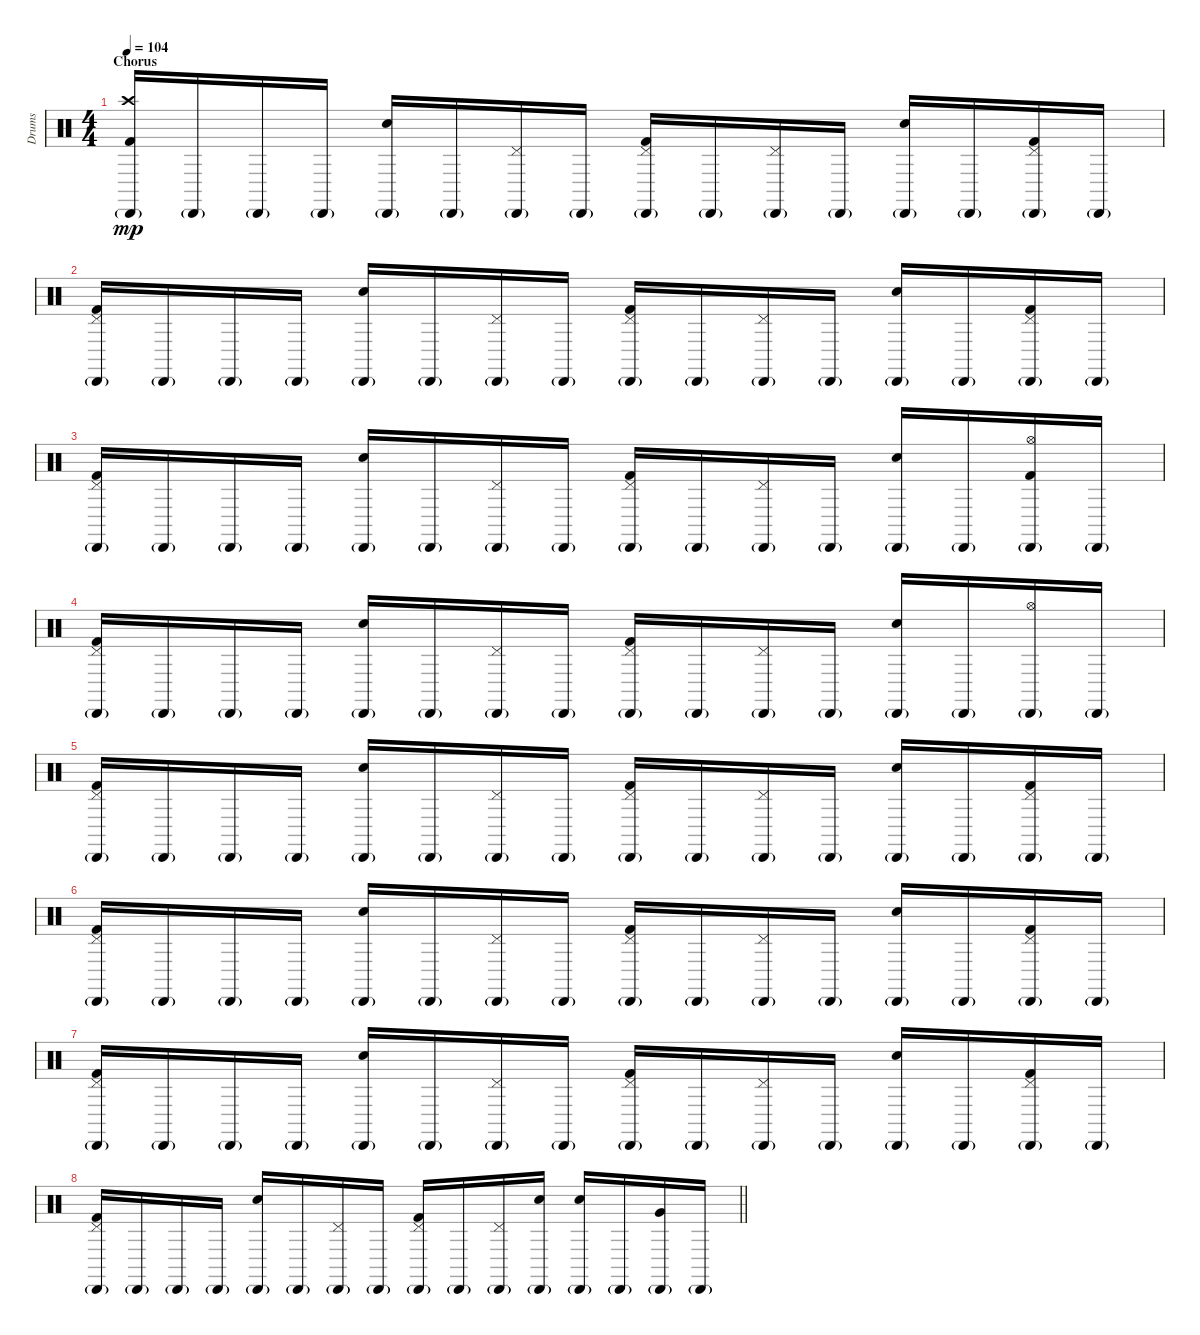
\track ("Drums" "Drums") {instrument percussion}
\staff {score}
\articulation defaults
\ts (4 4)
\section ("" "Chorus")
\tempo 104
\clef neutral
\ks c
("Crash high (hit)" "Cabasa (hit)"{g} "Kick (hit) 2").16{dy mp} "Cabasa (hit)"{g}.16 "Cabasa (hit)"{g}.16 "Cabasa (hit)"{g}.16 ("Snare (hit) 2" "Cabasa (hit)"{g}).16 "Cabasa (hit)"{g}.16 ("Pedal Hi-Hat (hit)" "Cabasa (hit)"{g}).16 "Cabasa (hit)"{g}.16 ("Pedal Hi-Hat (hit)" "Cabasa (hit)"{g} "Kick (hit) 2").16 "Cabasa (hit)"{g}.16 ("Pedal Hi-Hat (hit)" "Cabasa (hit)"{g}).16 "Cabasa (hit)"{g}.16 ("Snare (hit) 2" "Cabasa (hit)"{g}).16 "Cabasa (hit)"{g}.16 ("Pedal Hi-Hat (hit)" "Cabasa (hit)"{g} "Kick (hit) 2").16 "Cabasa (hit)"{g}.16 |
("Pedal Hi-Hat (hit)" "Cabasa (hit)"{g} "Kick (hit) 2").16 "Cabasa (hit)"{g}.16 "Cabasa (hit)"{g}.16 "Cabasa (hit)"{g}.16 ("Snare (hit) 2" "Cabasa (hit)"{g}).16 "Cabasa (hit)"{g}.16 ("Pedal Hi-Hat (hit)" "Cabasa (hit)"{g}).16 "Cabasa (hit)"{g}.16 ("Pedal Hi-Hat (hit)" "Cabasa (hit)"{g} "Kick (hit) 2").16 "Cabasa (hit)"{g}.16 ("Pedal Hi-Hat (hit)" "Cabasa (hit)"{g}).16 "Cabasa (hit)"{g}.16 ("Snare (hit) 2" "Cabasa (hit)"{g}).16 "Cabasa (hit)"{g}.16 ("Pedal Hi-Hat (hit)" "Cabasa (hit)"{g} "Kick (hit) 2").16 "Cabasa (hit)"{g}.16 |
("Pedal Hi-Hat (hit)" "Cabasa (hit)"{g} "Kick (hit) 2").16 "Cabasa (hit)"{g}.16 "Cabasa (hit)"{g}.16 "Cabasa (hit)"{g}.16 ("Snare (hit) 2" "Cabasa (hit)"{g}).16 "Cabasa (hit)"{g}.16 ("Pedal Hi-Hat (hit)" "Cabasa (hit)"{g}).16 "Cabasa (hit)"{g}.16 ("Pedal Hi-Hat (hit)" "Cabasa (hit)"{g} "Kick (hit) 2").16 "Cabasa (hit)"{g}.16 ("Pedal Hi-Hat (hit)" "Cabasa (hit)"{g}).16 "Cabasa (hit)"{g}.16 ("Snare (hit) 2" "Cabasa (hit)"{g}).16 "Cabasa (hit)"{g}.16 ("Hi-Hat (open)" "Cabasa (hit)"{g} "Kick (hit) 2").16 "Cabasa (hit)"{g}.16 |
("Pedal Hi-Hat (hit)" "Cabasa (hit)"{g} "Kick (hit) 2").16 "Cabasa (hit)"{g}.16 "Cabasa (hit)"{g}.16 "Cabasa (hit)"{g}.16 ("Snare (hit) 2" "Cabasa (hit)"{g}).16 "Cabasa (hit)"{g}.16 ("Pedal Hi-Hat (hit)" "Cabasa (hit)"{g}).16 "Cabasa (hit)"{g}.16 ("Pedal Hi-Hat (hit)" "Cabasa (hit)"{g} "Kick (hit) 2").16 "Cabasa (hit)"{g}.16 ("Pedal Hi-Hat (hit)" "Cabasa (hit)"{g}).16 "Cabasa (hit)"{g}.16 ("Snare (hit) 2" "Cabasa (hit)"{g}).16 "Cabasa (hit)"{g}.16 ("Hi-Hat (open)" "Cabasa (hit)"{g}).16 "Cabasa (hit)"{g}.16 |
("Pedal Hi-Hat (hit)" "Cabasa (hit)"{g} "Kick (hit) 2").16 "Cabasa (hit)"{g}.16 "Cabasa (hit)"{g}.16 "Cabasa (hit)"{g}.16 ("Snare (hit) 2" "Cabasa (hit)"{g}).16 "Cabasa (hit)"{g}.16 ("Pedal Hi-Hat (hit)" "Cabasa (hit)"{g}).16 "Cabasa (hit)"{g}.16 ("Pedal Hi-Hat (hit)" "Cabasa (hit)"{g} "Kick (hit) 2").16 "Cabasa (hit)"{g}.16 ("Pedal Hi-Hat (hit)" "Cabasa (hit)"{g}).16 "Cabasa (hit)"{g}.16 ("Snare (hit) 2" "Cabasa (hit)"{g}).16 "Cabasa (hit)"{g}.16 ("Pedal Hi-Hat (hit)" "Cabasa (hit)"{g} "Kick (hit) 2").16 "Cabasa (hit)"{g}.16 |
("Pedal Hi-Hat (hit)" "Cabasa (hit)"{g} "Kick (hit) 2").16 "Cabasa (hit)"{g}.16 "Cabasa (hit)"{g}.16 "Cabasa (hit)"{g}.16 ("Snare (hit) 2" "Cabasa (hit)"{g}).16 "Cabasa (hit)"{g}.16 ("Pedal Hi-Hat (hit)" "Cabasa (hit)"{g}).16 "Cabasa (hit)"{g}.16 ("Pedal Hi-Hat (hit)" "Cabasa (hit)"{g} "Kick (hit) 2").16 "Cabasa (hit)"{g}.16 ("Pedal Hi-Hat (hit)" "Cabasa (hit)"{g}).16 "Cabasa (hit)"{g}.16 ("Snare (hit) 2" "Cabasa (hit)"{g}).16 "Cabasa (hit)"{g}.16 ("Pedal Hi-Hat (hit)" "Cabasa (hit)"{g} "Kick (hit) 2").16 "Cabasa (hit)"{g}.16 |
("Pedal Hi-Hat (hit)" "Cabasa (hit)"{g} "Kick (hit) 2").16 "Cabasa (hit)"{g}.16 "Cabasa (hit)"{g}.16 "Cabasa (hit)"{g}.16 ("Snare (hit) 2" "Cabasa (hit)"{g}).16 "Cabasa (hit)"{g}.16 ("Pedal Hi-Hat (hit)" "Cabasa (hit)"{g}).16 "Cabasa (hit)"{g}.16 ("Pedal Hi-Hat (hit)" "Cabasa (hit)"{g} "Kick (hit) 2").16 "Cabasa (hit)"{g}.16 ("Pedal Hi-Hat (hit)" "Cabasa (hit)"{g}).16 "Cabasa (hit)"{g}.16 ("Snare (hit) 2" "Cabasa (hit)"{g}).16 "Cabasa (hit)"{g}.16 ("Pedal Hi-Hat (hit)" "Cabasa (hit)"{g} "Kick (hit) 2").16 "Cabasa (hit)"{g}.16 |
\barLineRight lightlight
("Pedal Hi-Hat (hit)" "Cabasa (hit)"{g} "Kick (hit) 2").16 "Cabasa (hit)"{g}.16 "Cabasa (hit)"{g}.16 "Cabasa (hit)"{g}.16 ("Snare (hit) 2" "Cabasa (hit)"{g}).16 "Cabasa (hit)"{g}.16 ("Pedal Hi-Hat (hit)" "Cabasa (hit)"{g}).16 "Cabasa (hit)"{g}.16 ("Pedal Hi-Hat (hit)" "Cabasa (hit)"{g} "Kick (hit) 2").16 "Cabasa (hit)"{g}.16 ("Pedal Hi-Hat (hit)" "Cabasa (hit)"{g}).16 ("Snare (hit) 2" "Cabasa (hit)"{g}).16 ("Snare (hit) 2" "Cabasa (hit)"{g}).16 "Cabasa (hit)"{g}.16 ("Very Low Tom (hit)" "Cabasa (hit)"{g}).16 "Cabasa (hit)"{g}.16
